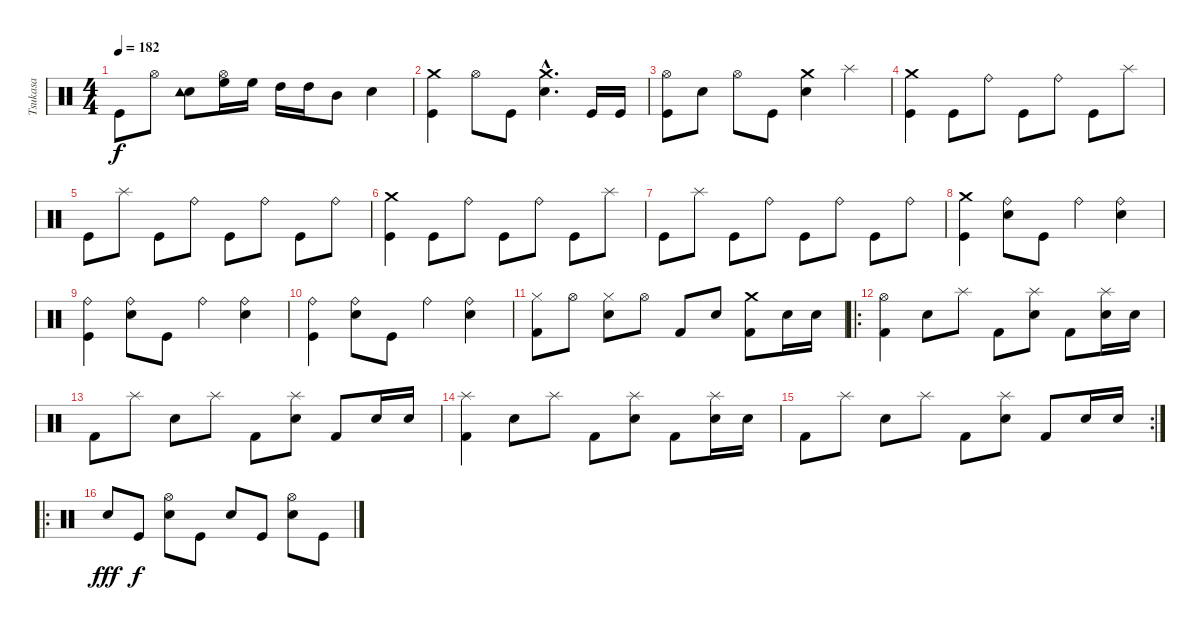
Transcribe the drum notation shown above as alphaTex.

\track ("Tsukasa" "Tsukasa") {instrument percussion}
\staff {score}
\articulation defaults
\ts (4 4)
\tempo 182
\clef neutral
\ks c "Kick (hit)".8{dy f} "Hi-Hat (open)".8
("Electric Snare (hit)" "Tambourine (hit)").8 ("High Floor Tom (hit)" "Hi-Hat (open)").16 "High Floor Tom (hit)".16 "High Tom (hit)".16 "High Tom (hit)".16 "Mid Tom (hit)".8 "Electric Snare (hit)".4 |
("Kick (hit)" "Crash medium (hit)").4 "Hi-Hat (open)".8 "Kick (hit)".8 ("Electric Snare (hit)"{hac} "Crash medium (hit)"{hac}).4{d} "Kick (hit)".16 "Kick (hit)".16 |
("Kick (hit)" "Hi-Hat (open)").8 "Electric Snare (hit)".8 "Hi-Hat (open)".8 "Kick (hit)".8 ("Electric Snare (hit)" "Crash medium (hit)").4 "Splash (hit)".4 |
("Kick (hit)" "Crash medium (hit)").4 "Kick (hit)".8 "Ride (bell)".8 "Kick (hit)".8 "Ride (bell)".8 "Kick (hit)".8 "Splash (hit)".8 |
"Kick (hit)".8 "Splash (hit)".8 "Kick (hit)".8 "Ride (bell)".8 "Kick (hit)".8 "Ride (bell)".8 "Kick (hit)".8 "Ride (bell)".8 |
("Kick (hit)" "Crash medium (hit)").4 "Kick (hit)".8 "Ride (bell)".8 "Kick (hit)".8 "Ride (bell)".8 "Kick (hit)".8 "Splash (hit)".8 |
"Kick (hit)".8 "Splash (hit)".8 "Kick (hit)".8 "Ride (bell)".8 "Kick (hit)".8 "Ride (bell)".8 "Kick (hit)".8 "Ride (bell)".8 |
("Kick (hit)" "Crash medium (hit)").4 ("Electric Snare (hit)" "Ride (bell)").8 "Kick (hit)".8 "Ride (bell)".4 ("Electric Snare (hit)" "Ride (bell)").4 |
("Kick (hit)" "Ride (bell)").4 ("Electric Snare (hit)" "Ride (bell)").8 "Kick (hit)".8 "Ride (bell)".4 ("Electric Snare (hit)" "Ride (bell)").4 |
("Kick (hit)" "Ride (bell)").4 ("Electric Snare (hit)" "Ride (bell)").8 "Kick (hit)".8 "Ride (bell)".4 ("Electric Snare (hit)" "Ride (bell)").4 |
("Kick (hit) 2" "Hi-Hat (closed)").8 "Hi-Hat (open)".8 ("Electric Snare (hit)" "Hi-Hat (closed)").8 "Hi-Hat (open)".8 "Kick (hit) 2".8 "Electric Snare (hit)".8 ("Kick (hit) 2" "Crash medium (hit)").8 "Electric Snare (hit)".16 "Electric Snare (hit)".16 |
\ro
("Kick (hit) 2" "Hi-Hat (open)").4 "Electric Snare (hit)".8 "Splash (hit)".8 "Kick (hit) 2".8 ("Electric Snare (hit)" "Splash (hit)").8 "Kick (hit) 2".8 ("Electric Snare (hit)" "Splash (hit)").16 "Electric Snare (hit)".16 |
"Kick (hit) 2".8 "Splash (hit)".8 "Electric Snare (hit)".8 "Splash (hit)".8 "Kick (hit) 2".8 ("Electric Snare (hit)" "Splash (hit)").8 "Kick (hit) 2".8 "Electric Snare (hit)".16 "Electric Snare (hit)".16 |
("Kick (hit) 2" "Splash (hit)").4 "Electric Snare (hit)".8 "Splash (hit)".8 "Kick (hit) 2".8 ("Electric Snare (hit)" "Splash (hit)").8 "Kick (hit) 2".8 ("Electric Snare (hit)" "Splash (hit)").16 "Electric Snare (hit)".16 |
\rc 2 "Kick (hit) 2".8 "Splash (hit)".8 "Electric Snare (hit)".8 "Splash (hit)".8 "Kick (hit) 2".8
("Electric Snare (hit)" "Splash (hit)").8 "Kick (hit) 2".8 "Electric Snare (hit)".16 "Electric Snare (hit)".16 |
\ro "Electric Snare (hit)".8{dy fff} "Kick (hit)".8{dy f}
("Electric Snare (hit)" "Hi-Hat (open)").8 "Kick (hit)".8 "Electric Snare (hit)".8 "Kick (hit)".8 ("Electric Snare (hit)" "Hi-Hat (open)").8 "Kick (hit)".8
